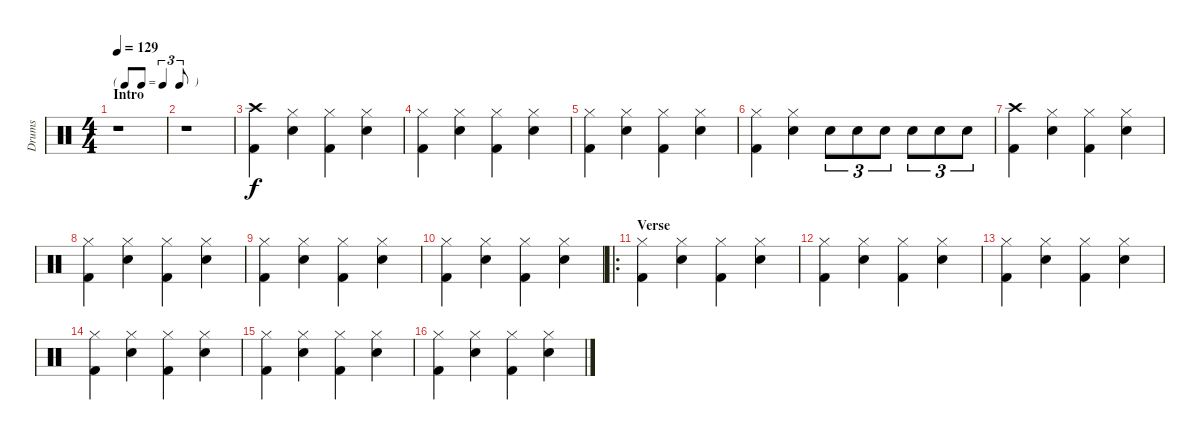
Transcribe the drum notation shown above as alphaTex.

\track ("Drums" "Drums") {instrument percussion}
\staff {score}
\articulation defaults
\ts (4 4)
\tf triplet8th
\section ("" "Intro")
\tempo 129
\clef neutral
\ks c
r.1{dy f} |
r.1 |
("Kick (hit) 2" "Crash high (hit)").4 ("Snare (hit) 2" "Hi-Hat (closed)").4 ("Kick (hit) 2" "Hi-Hat (closed)").4 ("Snare (hit) 2" "Hi-Hat (closed)").4 |
("Kick (hit) 2" "Hi-Hat (closed)").4 ("Snare (hit) 2" "Hi-Hat (closed)").4 ("Kick (hit) 2" "Hi-Hat (closed)").4 ("Snare (hit) 2" "Hi-Hat (closed)").4 |
("Kick (hit) 2" "Hi-Hat (closed)").4 ("Snare (hit) 2" "Hi-Hat (closed)").4 ("Kick (hit) 2" "Hi-Hat (closed)").4 ("Snare (hit) 2" "Hi-Hat (closed)").4 |
("Kick (hit) 2" "Hi-Hat (closed)").4 ("Snare (hit) 2" "Hi-Hat (closed)").4 "Snare (hit) 2".8{tu (3 2)} "Snare (hit) 2".8{tu (3 2)} "Snare (hit) 2".8{tu (3 2)} "Snare (hit) 2".8{tu (3 2)} "Snare (hit) 2".8{tu (3 2)} "Snare (hit) 2".8{tu (3 2)} |
("Kick (hit) 2" "Crash high (hit)").4 ("Snare (hit) 2" "Hi-Hat (closed)").4 ("Kick (hit) 2" "Hi-Hat (closed)").4 ("Snare (hit) 2" "Hi-Hat (closed)").4 |
("Kick (hit) 2" "Hi-Hat (closed)").4 ("Snare (hit) 2" "Hi-Hat (closed)").4 ("Kick (hit) 2" "Hi-Hat (closed)").4 ("Snare (hit) 2" "Hi-Hat (closed)").4 |
("Kick (hit) 2" "Hi-Hat (closed)").4 ("Snare (hit) 2" "Hi-Hat (closed)").4 ("Kick (hit) 2" "Hi-Hat (closed)").4 ("Snare (hit) 2" "Hi-Hat (closed)").4 |
("Kick (hit) 2" "Hi-Hat (closed)").4 ("Snare (hit) 2" "Hi-Hat (closed)").4 ("Kick (hit) 2" "Hi-Hat (closed)").4 ("Snare (hit) 2" "Hi-Hat (closed)").4 |
\ro
\section ("" "Verse")
("Kick (hit) 2" "Hi-Hat (closed)").4 ("Snare (hit) 2" "Hi-Hat (closed)").4 ("Kick (hit) 2" "Hi-Hat (closed)").4 ("Snare (hit) 2" "Hi-Hat (closed)").4 |
("Kick (hit) 2" "Hi-Hat (closed)").4 ("Snare (hit) 2" "Hi-Hat (closed)").4 ("Kick (hit) 2" "Hi-Hat (closed)").4 ("Snare (hit) 2" "Hi-Hat (closed)").4 |
("Kick (hit) 2" "Hi-Hat (closed)").4 ("Snare (hit) 2" "Hi-Hat (closed)").4 ("Kick (hit) 2" "Hi-Hat (closed)").4 ("Snare (hit) 2" "Hi-Hat (closed)").4 |
("Kick (hit) 2" "Hi-Hat (closed)").4 ("Snare (hit) 2" "Hi-Hat (closed)").4 ("Kick (hit) 2" "Hi-Hat (closed)").4 ("Snare (hit) 2" "Hi-Hat (closed)").4 |
("Kick (hit) 2" "Hi-Hat (closed)").4 ("Snare (hit) 2" "Hi-Hat (closed)").4 ("Kick (hit) 2" "Hi-Hat (closed)").4 ("Snare (hit) 2" "Hi-Hat (closed)").4 |
("Kick (hit) 2" "Hi-Hat (closed)").4 ("Snare (hit) 2" "Hi-Hat (closed)").4 ("Kick (hit) 2" "Hi-Hat (closed)").4 ("Snare (hit) 2" "Hi-Hat (closed)").4
